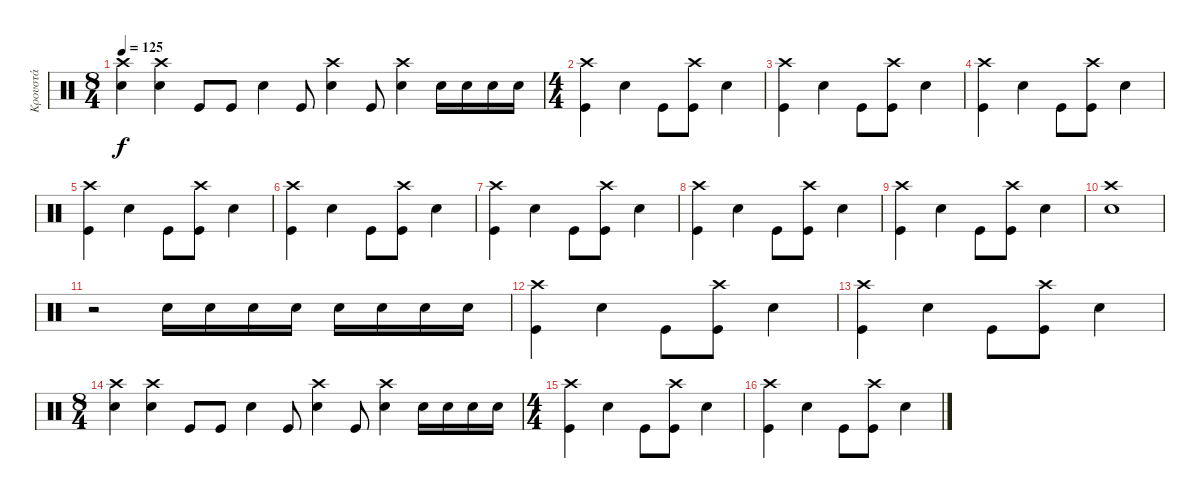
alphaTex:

\track ("Κρουστά" "Κρουστά") {instrument percussion}
\staff {score}
\articulation defaults
\ts (8 4)
\tempo 125
\clef neutral
\ks c
("Electric Snare (hit)" "Crash high (hit)").4{dy f} ("Crash high (hit)" "Electric Snare (hit)").4 "Kick (hit)".8 "Kick (hit)".8 "Electric Snare (hit)".4 "Kick (hit)".8 ("Crash high (hit)" "Electric Snare (hit)").4 "Kick (hit)".8 ("Crash high (hit)" "Electric Snare (hit)").4 "Electric Snare (hit)".16 "Electric Snare (hit)".16 "Electric Snare (hit)".16 "Electric Snare (hit)".16 |
\ts (4 4)
("Crash high (hit)" "Kick (hit)").4 "Electric Snare (hit)".4 "Kick (hit)".8 ("Crash high (hit)" "Kick (hit)").8 "Electric Snare (hit)".4 |
("Crash high (hit)" "Kick (hit)").4 "Electric Snare (hit)".4 "Kick (hit)".8 ("Crash high (hit)" "Kick (hit)").8 "Electric Snare (hit)".4 |
("Crash high (hit)" "Kick (hit)").4 "Electric Snare (hit)".4 "Kick (hit)".8 ("Crash high (hit)" "Kick (hit)").8 "Electric Snare (hit)".4 |
("Crash high (hit)" "Kick (hit)").4 "Electric Snare (hit)".4 "Kick (hit)".8 ("Crash high (hit)" "Kick (hit)").8 "Electric Snare (hit)".4 |
("Crash high (hit)" "Kick (hit)").4 "Electric Snare (hit)".4 "Kick (hit)".8 ("Crash high (hit)" "Kick (hit)").8 "Electric Snare (hit)".4 |
("Crash high (hit)" "Kick (hit)").4 "Electric Snare (hit)".4 "Kick (hit)".8 ("Crash high (hit)" "Kick (hit)").8 "Electric Snare (hit)".4 |
("Crash high (hit)" "Kick (hit)").4 "Electric Snare (hit)".4 "Kick (hit)".8 ("Crash high (hit)" "Kick (hit)").8 "Electric Snare (hit)".4 |
("Crash high (hit)" "Kick (hit)").4 "Electric Snare (hit)".4 "Kick (hit)".8 ("Crash high (hit)" "Kick (hit)").8 "Electric Snare (hit)".4 |
("Electric Snare (hit)" "Crash high (hit)").1 |
r.2 "Electric Snare (hit)".16 "Electric Snare (hit)".16 "Electric Snare (hit)".16 "Electric Snare (hit)".16 "Electric Snare (hit)".16 "Electric Snare (hit)".16 "Electric Snare (hit)".16 "Electric Snare (hit)".16 |
("Crash high (hit)" "Kick (hit)").4 "Electric Snare (hit)".4 "Kick (hit)".8 ("Crash high (hit)" "Kick (hit)").8 "Electric Snare (hit)".4 |
("Crash high (hit)" "Kick (hit)").4 "Electric Snare (hit)".4 "Kick (hit)".8 ("Crash high (hit)" "Kick (hit)").8 "Electric Snare (hit)".4 |
\ts (8 4)
("Electric Snare (hit)" "Crash high (hit)").4 ("Crash high (hit)" "Electric Snare (hit)").4 "Kick (hit)".8 "Kick (hit)".8 "Electric Snare (hit)".4 "Kick (hit)".8 ("Crash high (hit)" "Electric Snare (hit)").4 "Kick (hit)".8 ("Crash high (hit)" "Electric Snare (hit)").4 "Electric Snare (hit)".16 "Electric Snare (hit)".16 "Electric Snare (hit)".16 "Electric Snare (hit)".16 |
\ts (4 4)
("Crash high (hit)" "Kick (hit)").4 "Electric Snare (hit)".4 "Kick (hit)".8 ("Crash high (hit)" "Kick (hit)").8 "Electric Snare (hit)".4 |
("Crash high (hit)" "Kick (hit)").4 "Electric Snare (hit)".4 "Kick (hit)".8 ("Crash high (hit)" "Kick (hit)").8 "Electric Snare (hit)".4
